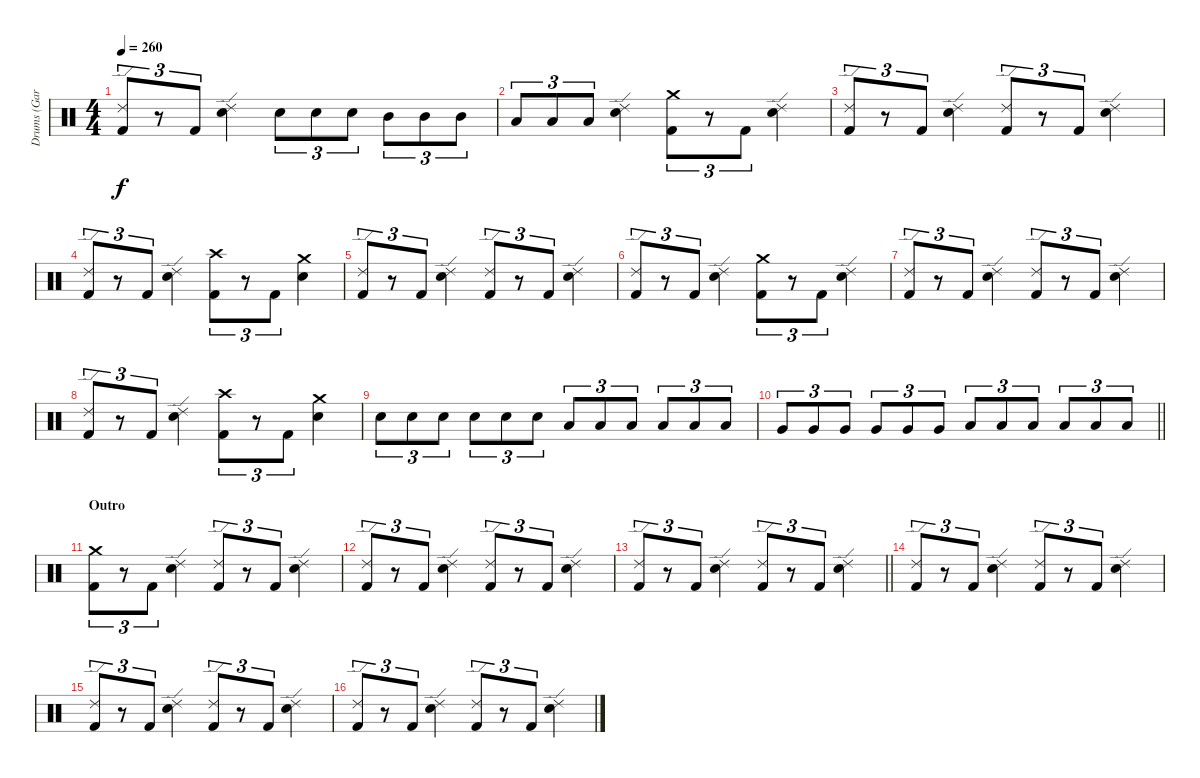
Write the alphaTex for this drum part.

\track ("Drums (Gar Samuelson)" "Drums (Gar") {instrument percussion}
\staff {score}
\articulation defaults
\ts (4 4)
\tempo 260
\clef neutral
\ks c
("Ride (edge) 2" "Kick (hit) 2").8{tu (3 2) dy f} r.8{tu (3 2)} "Kick (hit) 2".8{tu (3 2)} ("Ride (edge) 2" "Snare (hit) 2").4 "Snare (hit) 2".8{tu (3 2)} "Snare (hit) 2".8{tu (3 2)} "Snare (hit) 2".8{tu (3 2)} "Mid Tom (hit)".8{tu (3 2)} "Mid Tom (hit)".8{tu (3 2)} "Mid Tom (hit)".8{tu (3 2)} |
"Low Tom (hit)".8{tu (3 2)} "Low Tom (hit)".8{tu (3 2)} "Low Tom (hit)".8{tu (3 2)} ("Ride (edge) 2" "Snare (hit) 2").4 ("Crash medium (hit)" "Kick (hit) 2").8{tu (3 2)} r.8{tu (3 2)} "Kick (hit) 2".8{tu (3 2)} ("Ride (edge) 2" "Snare (hit) 2").4 |
("Ride (edge) 2" "Kick (hit) 2").8{tu (3 2)} r.8{tu (3 2)} "Kick (hit) 2".8{tu (3 2)} ("Ride (edge) 2" "Snare (hit) 2").4 ("Ride (edge) 2" "Kick (hit) 2").8{tu (3 2)} r.8{tu (3 2)} "Kick (hit) 2".8{tu (3 2)} ("Ride (edge) 2" "Snare (hit) 2").4 |
("Ride (edge) 2" "Kick (hit) 2").8{tu (3 2)} r.8{tu (3 2)} "Kick (hit) 2".8{tu (3 2)} ("Ride (edge) 2" "Snare (hit) 2").4 ("Crash high (hit)" "Kick (hit) 2").8{tu (3 2)} r.8{tu (3 2)} "Kick (hit) 2".8{tu (3 2)} ("Crash medium (hit)" "Snare (hit) 2").4 |
("Ride (edge) 2" "Kick (hit) 2").8{tu (3 2)} r.8{tu (3 2)} "Kick (hit) 2".8{tu (3 2)} ("Ride (edge) 2" "Snare (hit) 2").4 ("Ride (edge) 2" "Kick (hit) 2").8{tu (3 2)} r.8{tu (3 2)} "Kick (hit) 2".8{tu (3 2)} ("Ride (edge) 2" "Snare (hit) 2").4 |
("Ride (edge) 2" "Kick (hit) 2").8{tu (3 2)} r.8{tu (3 2)} "Kick (hit) 2".8{tu (3 2)} ("Ride (edge) 2" "Snare (hit) 2").4 ("Crash medium (hit)" "Kick (hit) 2").8{tu (3 2)} r.8{tu (3 2)} "Kick (hit) 2".8{tu (3 2)} ("Ride (edge) 2" "Snare (hit) 2").4 |
("Ride (edge) 2" "Kick (hit) 2").8{tu (3 2)} r.8{tu (3 2)} "Kick (hit) 2".8{tu (3 2)} ("Ride (edge) 2" "Snare (hit) 2").4 ("Ride (edge) 2" "Kick (hit) 2").8{tu (3 2)} r.8{tu (3 2)} "Kick (hit) 2".8{tu (3 2)} ("Ride (edge) 2" "Snare (hit) 2").4 |
("Ride (edge) 2" "Kick (hit) 2").8{tu (3 2)} r.8{tu (3 2)} "Kick (hit) 2".8{tu (3 2)} ("Ride (edge) 2" "Snare (hit) 2").4 ("Crash high (hit)" "Kick (hit) 2").8{tu (3 2)} r.8{tu (3 2)} "Kick (hit) 2".8{tu (3 2)} ("Crash medium (hit)" "Snare (hit) 2").4 |
"Snare (hit) 2".8{tu (3 2)} "Snare (hit) 2".8{tu (3 2)} "Snare (hit) 2".8{tu (3 2)} "Snare (hit) 2".8{tu (3 2)} "Snare (hit) 2".8{tu (3 2)} "Snare (hit) 2".8{tu (3 2)} "Low Tom (hit)".8{tu (3 2)} "Low Tom (hit)".8{tu (3 2)} "Low Tom (hit)".8{tu (3 2)} "Low Tom (hit)".8{tu (3 2)} "Low Tom (hit)".8{tu (3 2)} "Low Tom (hit)".8{tu (3 2)} |
\barLineRight lightlight "Very Low Tom (hit)".8{tu (3 2)} "Very Low Tom (hit)".8{tu (3 2)} "Very Low Tom (hit)".8{tu (3 2)} "Very Low Tom (hit)".8{tu (3 2)} "Very Low Tom (hit)".8{tu (3 2)} "Very Low Tom (hit)".8{tu (3 2)} "Low Floor Tom (hit)".8{tu (3 2)} "Low Floor Tom (hit)".8{tu (3 2)} "Low Floor Tom (hit)".8{tu (3 2)} "Low Floor Tom (hit)".8{tu (3 2)} "Low Floor Tom (hit)".8{tu (3 2)} "Low Floor Tom (hit)".8{tu (3 2)}
|
\section ("" "Outro")
("Crash medium (hit)" "Kick (hit) 2").8{tu (3 2)} r.8{tu (3 2)} "Kick (hit) 2".8{tu (3 2)} ("Ride (edge) 2" "Snare (hit) 2").4 ("Ride (edge) 2" "Kick (hit) 2").8{tu (3 2)} r.8{tu (3 2)} "Kick (hit) 2".8{tu (3 2)} ("Ride (edge) 2" "Snare (hit) 2").4 |
("Ride (edge) 2" "Kick (hit) 2").8{tu (3 2)} r.8{tu (3 2)} "Kick (hit) 2".8{tu (3 2)} ("Ride (edge) 2" "Snare (hit) 2").4 ("Ride (edge) 2" "Kick (hit) 2").8{tu (3 2)} r.8{tu (3 2)} "Kick (hit) 2".8{tu (3 2)} ("Ride (edge) 2" "Snare (hit) 2").4 |
\barLineRight lightlight
("Ride (edge) 2" "Kick (hit) 2").8{tu (3 2)} r.8{tu (3 2)} "Kick (hit) 2".8{tu (3 2)} ("Ride (edge) 2" "Snare (hit) 2").4 ("Ride (edge) 2" "Kick (hit) 2").8{tu (3 2)} r.8{tu (3 2)} "Kick (hit) 2".8{tu (3 2)} ("Ride (edge) 2" "Snare (hit) 2").4 |
("Ride (edge) 2" "Kick (hit) 2").8{tu (3 2)} r.8{tu (3 2)} "Kick (hit) 2".8{tu (3 2)} ("Ride (edge) 2" "Snare (hit) 2").4 ("Ride (edge) 2" "Kick (hit) 2").8{tu (3 2)} r.8{tu (3 2)} "Kick (hit) 2".8{tu (3 2)} ("Ride (edge) 2" "Snare (hit) 2").4 |
("Ride (edge) 2" "Kick (hit) 2").8{tu (3 2)} r.8{tu (3 2)} "Kick (hit) 2".8{tu (3 2)} ("Ride (edge) 2" "Snare (hit) 2").4 ("Ride (edge) 2" "Kick (hit) 2").8{tu (3 2)} r.8{tu (3 2)} "Kick (hit) 2".8{tu (3 2)} ("Ride (edge) 2" "Snare (hit) 2").4 |
("Ride (edge) 2" "Kick (hit) 2").8{tu (3 2)} r.8{tu (3 2)} "Kick (hit) 2".8{tu (3 2)} ("Ride (edge) 2" "Snare (hit) 2").4 ("Ride (edge) 2" "Kick (hit) 2").8{tu (3 2)} r.8{tu (3 2)} "Kick (hit) 2".8{tu (3 2)} ("Ride (edge) 2" "Snare (hit) 2").4
